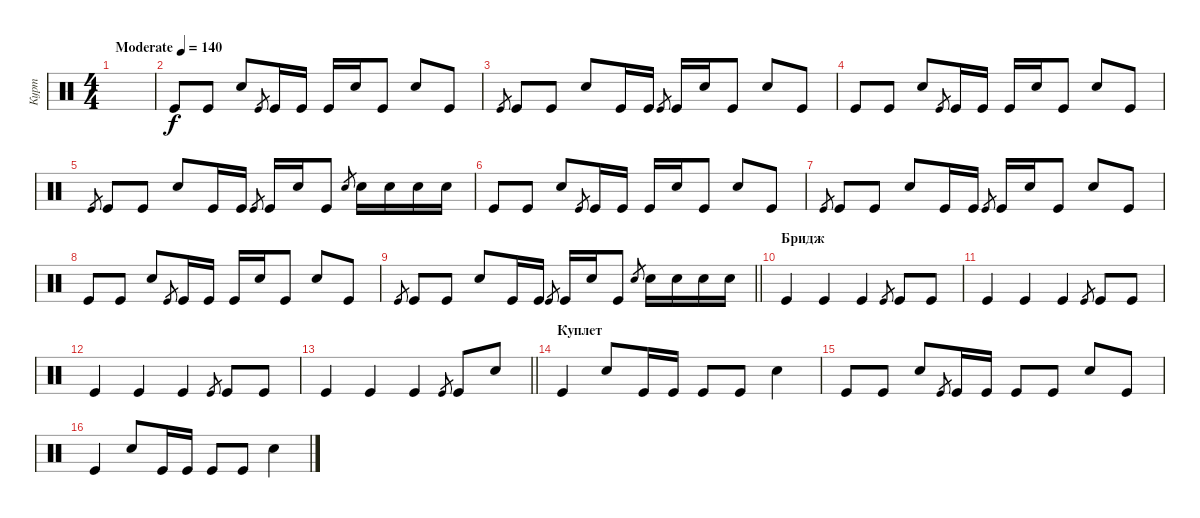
\track ("Курт" "Курт") {instrument percussion}
\staff {score}
\articulation defaults
\ts (4 4)
\tempo (140 "Moderate")
\clef neutral
\ks c
|
"Kick (hit)".8 "Kick (hit)".8 "Snare (hit) 2".8 "Kick (hit)".8{gr} "Kick (hit)".16 "Kick (hit)".16 "Kick (hit)".16 "Snare (hit) 2".16 "Kick (hit)".8 "Snare (hit) 2".8 "Kick (hit)".8 |
"Kick (hit)".8{gr} "Kick (hit)".8 "Kick (hit)".8 "Snare (hit) 2".8 "Kick (hit)".16 "Kick (hit)".16 "Kick (hit)".8{gr} "Kick (hit)".16 "Snare (hit) 2".16 "Kick (hit)".8 "Snare (hit) 2".8 "Kick (hit)".8 |
"Kick (hit)".8 "Kick (hit)".8 "Snare (hit) 2".8 "Kick (hit)".8{gr} "Kick (hit)".16 "Kick (hit)".16 "Kick (hit)".16 "Snare (hit) 2".16 "Kick (hit)".8 "Snare (hit) 2".8 "Kick (hit)".8 |
"Kick (hit)".8{gr} "Kick (hit)".8 "Kick (hit)".8 "Snare (hit) 2".8 "Kick (hit)".16 "Kick (hit)".16 "Kick (hit)".8{gr} "Kick (hit)".16 "Snare (hit) 2".16 "Kick (hit)".8 "Snare (hit) 2".8{gr} "Snare (hit) 2".16 "Snare (hit) 2".16 "Snare (hit) 2".16 "Snare (hit) 2".16 |
"Kick (hit)".8 "Kick (hit)".8 "Snare (hit) 2".8 "Kick (hit)".8{gr} "Kick (hit)".16 "Kick (hit)".16 "Kick (hit)".16 "Snare (hit) 2".16 "Kick (hit)".8 "Snare (hit) 2".8 "Kick (hit)".8 |
"Kick (hit)".8{gr} "Kick (hit)".8 "Kick (hit)".8 "Snare (hit) 2".8 "Kick (hit)".16 "Kick (hit)".16 "Kick (hit)".8{gr} "Kick (hit)".16 "Snare (hit) 2".16 "Kick (hit)".8 "Snare (hit) 2".8 "Kick (hit)".8 |
"Kick (hit)".8 "Kick (hit)".8 "Snare (hit) 2".8 "Kick (hit)".8{gr} "Kick (hit)".16 "Kick (hit)".16 "Kick (hit)".16 "Snare (hit) 2".16 "Kick (hit)".8 "Snare (hit) 2".8 "Kick (hit)".8 |
\barLineRight lightlight "Kick (hit)".8{gr} "Kick (hit)".8 "Kick (hit)".8 "Snare (hit) 2".8 "Kick (hit)".16 "Kick (hit)".16 "Kick (hit)".8{gr} "Kick (hit)".16 "Snare (hit) 2".16 "Kick (hit)".8 "Snare (hit) 2".8{gr} "Snare (hit) 2".16 "Snare (hit) 2".16 "Snare (hit) 2".16 "Snare (hit) 2".16
|
\section ("" "Бридж")
"Kick (hit)".4 "Kick (hit)".4 "Kick (hit)".4 "Kick (hit)".8{gr} "Kick (hit)".8 "Kick (hit)".8 |
"Kick (hit)".4 "Kick (hit)".4 "Kick (hit)".4 "Kick (hit)".8{gr} "Kick (hit)".8 "Kick (hit)".8 |
"Kick (hit)".4 "Kick (hit)".4 "Kick (hit)".4 "Kick (hit)".8{gr} "Kick (hit)".8 "Kick (hit)".8 |
\barLineRight lightlight "Kick (hit)".4 "Kick (hit)".4 "Kick (hit)".4 "Kick (hit)".8{gr} "Kick (hit)".8 "Snare (hit) 2".8
|
\section ("" "Куплет")
"Kick (hit)".4 "Snare (hit) 2".8 "Kick (hit)".16 "Kick (hit)".16 "Kick (hit)".8 "Kick (hit)".8 "Snare (hit) 2".4 |
"Kick (hit)".8 "Kick (hit)".8 "Snare (hit) 2".8 "Kick (hit)".8{gr} "Kick (hit)".16 "Kick (hit)".16 "Kick (hit)".8 "Kick (hit)".8 "Snare (hit) 2".8 "Kick (hit)".8 |
"Kick (hit)".4 "Snare (hit) 2".8 "Kick (hit)".16 "Kick (hit)".16 "Kick (hit)".8 "Kick (hit)".8 "Snare (hit) 2".4
